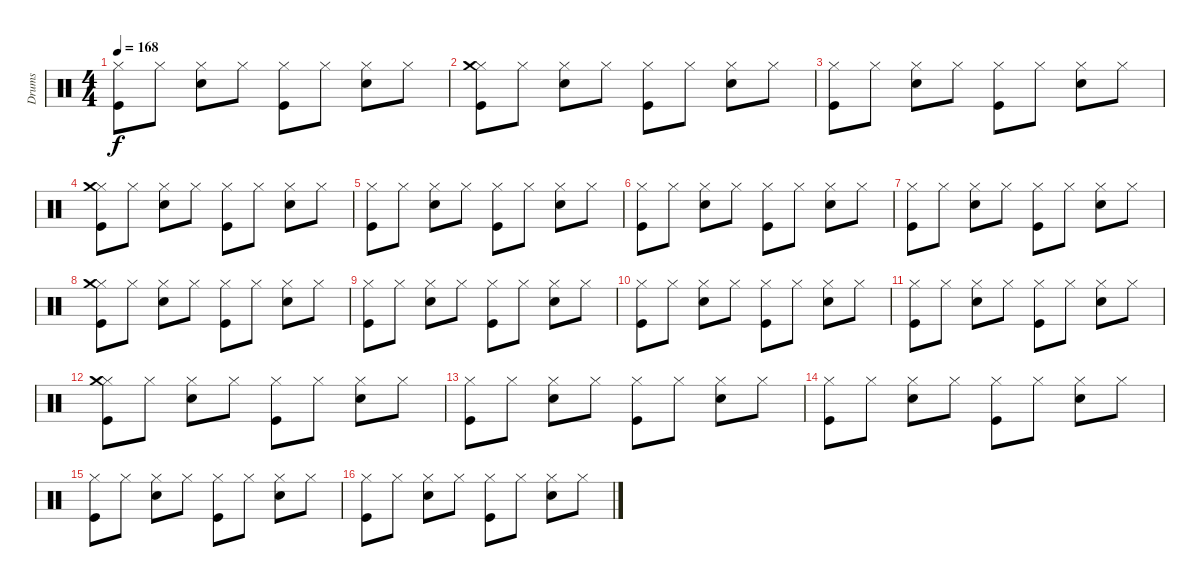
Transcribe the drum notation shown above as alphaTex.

\track ("Drums" "Drums") {instrument percussion}
\staff {score}
\articulation defaults
\ts (4 4)
\tempo 168
\clef neutral
\ks c
("Kick (hit)" "Hi-Hat (closed)").8{dy f} "Hi-Hat (closed)".8 ("Snare (hit) 2" "Hi-Hat (closed)").8 "Hi-Hat (closed)".8 ("Kick (hit)" "Hi-Hat (closed)").8 "Hi-Hat (closed)".8 ("Snare (hit) 2" "Hi-Hat (closed)").8 "Hi-Hat (closed)".8 |
("Kick (hit)" "Hi-Hat (closed)" "Crash medium (hit)").8 "Hi-Hat (closed)".8 ("Snare (hit) 2" "Hi-Hat (closed)").8 "Hi-Hat (closed)".8 ("Kick (hit)" "Hi-Hat (closed)").8 "Hi-Hat (closed)".8 ("Snare (hit) 2" "Hi-Hat (closed)").8 "Hi-Hat (closed)".8 |
("Kick (hit)" "Hi-Hat (closed)").8 "Hi-Hat (closed)".8 ("Snare (hit) 2" "Hi-Hat (closed)").8 "Hi-Hat (closed)".8 ("Kick (hit)" "Hi-Hat (closed)").8 "Hi-Hat (closed)".8 ("Snare (hit) 2" "Hi-Hat (closed)").8 "Hi-Hat (closed)".8 |
("Kick (hit)" "Hi-Hat (closed)" "Crash medium (hit)").8 "Hi-Hat (closed)".8 ("Snare (hit) 2" "Hi-Hat (closed)").8 "Hi-Hat (closed)".8 ("Kick (hit)" "Hi-Hat (closed)").8 "Hi-Hat (closed)".8 ("Snare (hit) 2" "Hi-Hat (closed)").8 "Hi-Hat (closed)".8 |
("Kick (hit)" "Hi-Hat (closed)").8 "Hi-Hat (closed)".8 ("Snare (hit) 2" "Hi-Hat (closed)").8 "Hi-Hat (closed)".8 ("Kick (hit)" "Hi-Hat (closed)").8 "Hi-Hat (closed)".8 ("Snare (hit) 2" "Hi-Hat (closed)").8 "Hi-Hat (closed)".8 |
("Kick (hit)" "Hi-Hat (closed)").8 "Hi-Hat (closed)".8 ("Snare (hit) 2" "Hi-Hat (closed)").8 "Hi-Hat (closed)".8 ("Kick (hit)" "Hi-Hat (closed)").8 "Hi-Hat (closed)".8 ("Snare (hit) 2" "Hi-Hat (closed)").8 "Hi-Hat (closed)".8 |
("Kick (hit)" "Hi-Hat (closed)").8 "Hi-Hat (closed)".8 ("Snare (hit) 2" "Hi-Hat (closed)").8 "Hi-Hat (closed)".8 ("Kick (hit)" "Hi-Hat (closed)").8 "Hi-Hat (closed)".8 ("Snare (hit) 2" "Hi-Hat (closed)").8 "Hi-Hat (closed)".8 |
("Kick (hit)" "Hi-Hat (closed)" "Crash medium (hit)").8 "Hi-Hat (closed)".8 ("Snare (hit) 2" "Hi-Hat (closed)").8 "Hi-Hat (closed)".8 ("Kick (hit)" "Hi-Hat (closed)").8 "Hi-Hat (closed)".8 ("Snare (hit) 2" "Hi-Hat (closed)").8 "Hi-Hat (closed)".8 |
("Kick (hit)" "Hi-Hat (closed)").8 "Hi-Hat (closed)".8 ("Snare (hit) 2" "Hi-Hat (closed)").8 "Hi-Hat (closed)".8 ("Kick (hit)" "Hi-Hat (closed)").8 "Hi-Hat (closed)".8 ("Snare (hit) 2" "Hi-Hat (closed)").8 "Hi-Hat (closed)".8 |
("Kick (hit)" "Hi-Hat (closed)").8 "Hi-Hat (closed)".8 ("Snare (hit) 2" "Hi-Hat (closed)").8 "Hi-Hat (closed)".8 ("Kick (hit)" "Hi-Hat (closed)").8 "Hi-Hat (closed)".8 ("Snare (hit) 2" "Hi-Hat (closed)").8 "Hi-Hat (closed)".8 |
("Kick (hit)" "Hi-Hat (closed)").8 "Hi-Hat (closed)".8 ("Snare (hit) 2" "Hi-Hat (closed)").8 "Hi-Hat (closed)".8 ("Kick (hit)" "Hi-Hat (closed)").8 "Hi-Hat (closed)".8 ("Snare (hit) 2" "Hi-Hat (closed)").8 "Hi-Hat (closed)".8 |
("Kick (hit)" "Hi-Hat (closed)" "Crash medium (hit)").8 "Hi-Hat (closed)".8 ("Snare (hit) 2" "Hi-Hat (closed)").8 "Hi-Hat (closed)".8 ("Kick (hit)" "Hi-Hat (closed)").8 "Hi-Hat (closed)".8 ("Snare (hit) 2" "Hi-Hat (closed)").8 "Hi-Hat (closed)".8 |
("Kick (hit)" "Hi-Hat (closed)").8 "Hi-Hat (closed)".8 ("Snare (hit) 2" "Hi-Hat (closed)").8 "Hi-Hat (closed)".8 ("Kick (hit)" "Hi-Hat (closed)").8 "Hi-Hat (closed)".8 ("Snare (hit) 2" "Hi-Hat (closed)").8 "Hi-Hat (closed)".8 |
("Kick (hit)" "Hi-Hat (closed)").8 "Hi-Hat (closed)".8 ("Snare (hit) 2" "Hi-Hat (closed)").8 "Hi-Hat (closed)".8 ("Kick (hit)" "Hi-Hat (closed)").8 "Hi-Hat (closed)".8 ("Snare (hit) 2" "Hi-Hat (closed)").8 "Hi-Hat (closed)".8 |
("Kick (hit)" "Hi-Hat (closed)").8 "Hi-Hat (closed)".8 ("Snare (hit) 2" "Hi-Hat (closed)").8 "Hi-Hat (closed)".8 ("Kick (hit)" "Hi-Hat (closed)").8 "Hi-Hat (closed)".8 ("Snare (hit) 2" "Hi-Hat (closed)").8 "Hi-Hat (closed)".8 |
("Kick (hit)" "Hi-Hat (closed)").8 "Hi-Hat (closed)".8 ("Snare (hit) 2" "Hi-Hat (closed)").8 "Hi-Hat (closed)".8 ("Kick (hit)" "Hi-Hat (closed)").8 "Hi-Hat (closed)".8 ("Snare (hit) 2" "Hi-Hat (closed)").8 "Hi-Hat (closed)".8
